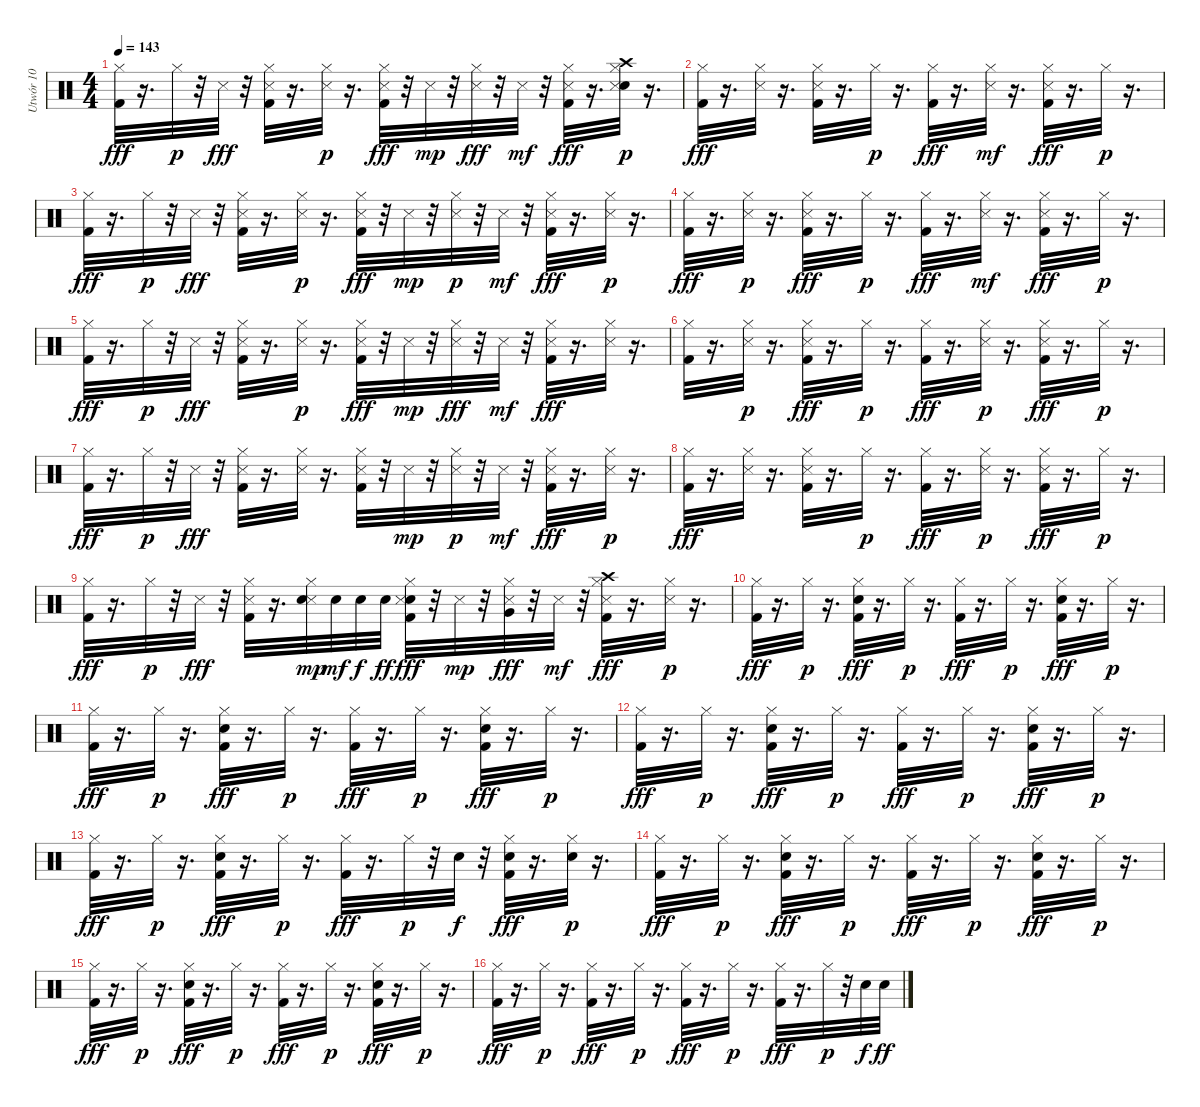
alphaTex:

\track ("Utwór 10" "Utwór 10") {instrument percussion}
\staff {score}
\articulation defaults
\ts (4 4)
\tempo 143
\clef neutral
\ks c
("Hi-Hat (closed)" "Kick (hit) 2").32{dy fff} r.16{d} "Hi-Hat (closed)".32{dy p} r.32 "Snare (side stick) 3".32{dy fff} r.32 ("Snare (side stick) 3" "Hi-Hat (closed)" "Kick (hit) 2").32 r.16{d} ("Snare (side stick) 3" "Hi-Hat (closed)").32{dy p} r.16{d} ("Kick (hit) 2" "Snare (side stick) 3" "Hi-Hat (closed)").32{dy fff} r.32 "Snare (side stick) 3".32{dy mp} r.32 ("Hi-Hat (closed)" "Snare (side stick) 3").32{dy fff} r.32 "Snare (side stick) 3".32{dy mf} r.32 ("Hi-Hat (closed)" "Snare (side stick) 3" "Kick (hit) 2").32{dy fff} r.16{d} ("Electric Snare (hit)" "Crash high (hit)" "Snare (side stick) 3" "Hi-Hat (closed)").32{dy p} r.16{d} |
("Kick (hit) 2" "Hi-Hat (closed)").32{dy fff} r.16{d} ("Hi-Hat (closed)" "Snare (side stick) 3").32 r.16{d} ("Snare (side stick) 3" "Hi-Hat (closed)" "Kick (hit) 2").32 r.16{d} "Hi-Hat (closed)".32{dy p} r.16{d} ("Hi-Hat (closed)" "Kick (hit) 2").32{dy fff} r.16{d} ("Hi-Hat (closed)" "Snare (side stick) 3").32{dy mf} r.16{d} ("Snare (side stick) 3" "Kick (hit) 2" "Hi-Hat (closed)").32{dy fff} r.16{d} "Hi-Hat (closed)".32{dy p} r.16{d} |
("Hi-Hat (closed)" "Kick (hit) 2").32{dy fff} r.16{d} "Hi-Hat (closed)".32{dy p} r.32 "Snare (side stick) 3".32{dy fff} r.32 ("Kick (hit) 2" "Snare (side stick) 3" "Hi-Hat (closed)").32 r.16{d} ("Snare (side stick) 3" "Hi-Hat (closed)").32{dy p} r.16{d} ("Snare (side stick) 3" "Kick (hit) 2" "Hi-Hat (closed)").32{dy fff} r.32 "Snare (side stick) 3".32{dy mp} r.32 ("Snare (side stick) 3" "Hi-Hat (closed)").32{dy p} r.32 "Snare (side stick) 3".32{dy mf} r.32 ("Hi-Hat (closed)" "Snare (side stick) 3" "Kick (hit) 2").32{dy fff} r.16{d} ("Snare (side stick) 3" "Hi-Hat (closed)").32{dy p} r.16{d} |
("Kick (hit) 2" "Hi-Hat (closed)").32{dy fff} r.16{d} ("Snare (side stick) 3" "Hi-Hat (closed)").32{dy p} r.16{d} ("Kick (hit) 2" "Hi-Hat (closed)" "Snare (side stick) 3").32{dy fff} r.16{d} "Hi-Hat (closed)".32{dy p} r.16{d} ("Hi-Hat (closed)" "Kick (hit) 2").32{dy fff} r.16{d} ("Hi-Hat (closed)" "Snare (side stick) 3").32{dy mf} r.16{d} ("Snare (side stick) 3" "Kick (hit) 2" "Hi-Hat (closed)").32{dy fff} r.16{d} "Hi-Hat (closed)".32{dy p} r.16{d} |
("Kick (hit) 2" "Hi-Hat (closed)").32{dy fff} r.16{d} "Hi-Hat (closed)".32{dy p} r.32 "Snare (side stick) 3".32{dy fff} r.32 ("Snare (side stick) 3" "Kick (hit) 2" "Hi-Hat (closed)").32 r.16{d} ("Snare (side stick) 3" "Hi-Hat (closed)").32{dy p} r.16{d} ("Snare (side stick) 3" "Hi-Hat (closed)" "Kick (hit) 2").32{dy fff} r.32 "Snare (side stick) 3".32{dy mp} r.32 ("Hi-Hat (closed)" "Snare (side stick) 3").32{dy fff} r.32 "Snare (side stick) 3".32{dy mf} r.32 ("Kick (hit) 2" "Hi-Hat (closed)" "Snare (side stick) 3").32{dy fff} r.16{d} ("Hi-Hat (closed)" "Snare (side stick) 3").32 r.16{d} |
("Kick (hit) 2" "Hi-Hat (closed)").32 r.16{d} ("Snare (side stick) 3" "Hi-Hat (closed)").32{dy p} r.16{d} ("Hi-Hat (closed)" "Kick (hit) 2" "Snare (side stick) 3").32{dy fff} r.16{d} "Hi-Hat (closed)".32{dy p} r.16{d} ("Kick (hit) 2" "Hi-Hat (closed)").32{dy fff} r.16{d} ("Snare (side stick) 3" "Hi-Hat (closed)").32{dy p} r.16{d} ("Snare (side stick) 3" "Kick (hit) 2" "Hi-Hat (closed)").32{dy fff} r.16{d} "Hi-Hat (closed)".32{dy p} r.16{d} |
("Kick (hit) 2" "Hi-Hat (closed)").32{dy fff} r.16{d} "Hi-Hat (closed)".32{dy p} r.32 "Snare (side stick) 3".32{dy fff} r.32 ("Kick (hit) 2" "Snare (side stick) 3" "Hi-Hat (closed)").32 r.16{d} ("Hi-Hat (closed)" "Snare (side stick) 3").32 r.16{d} ("Snare (side stick) 3" "Hi-Hat (closed)" "Kick (hit) 2").32 r.32 "Snare (side stick) 3".32{dy mp} r.32 ("Snare (side stick) 3" "Hi-Hat (closed)").32{dy p} r.32 "Snare (side stick) 3".32{dy mf} r.32 ("Snare (side stick) 3" "Hi-Hat (closed)" "Kick (hit) 2").32{dy fff} r.16{d} ("Snare (side stick) 3" "Hi-Hat (closed)").32{dy p} r.16{d} |
("Kick (hit) 2" "Hi-Hat (closed)").32{dy fff} r.16{d} ("Hi-Hat (closed)" "Snare (side stick) 3").32 r.16{d} ("Hi-Hat (closed)" "Snare (side stick) 3" "Kick (hit) 2").32 r.16{d} "Hi-Hat (closed)".32{dy p} r.16{d} ("Hi-Hat (closed)" "Kick (hit) 2").32{dy fff} r.16{d} ("Snare (side stick) 3" "Hi-Hat (closed)").32{dy p} r.16{d} ("Hi-Hat (closed)" "Kick (hit) 2" "Snare (side stick) 3").32{dy fff} r.16{d} "Hi-Hat (closed)".32{dy p} r.16{d} |
("Kick (hit) 2" "Hi-Hat (closed)").32{dy fff} r.16{d} "Hi-Hat (closed)".32{dy p} r.32 "Snare (side stick) 3".32{dy fff} r.32 ("Kick (hit) 2" "Snare (side stick) 3" "Hi-Hat (closed)").32 r.16{d} ("Snare (side stick) 3" "Hi-Hat (closed)" "Electric Snare (hit)").32{dy mp} "Electric Snare (hit)".32{dy mf} "Electric Snare (hit)".32{dy f} "Electric Snare (hit)".32{dy ff} ("Electric Snare (hit)" "Snare (side stick) 3" "Hi-Hat (closed)" "Kick (hit) 2").32{dy fff} r.32 "Snare (side stick) 3".32{dy mp} r.32 ("Hi-Hat (closed)" "Very Low Tom (hit)" "Snare (side stick) 3").32{dy fff} r.32 "Snare (side stick) 3".32{dy mf} r.32 ("Crash high (hit)" "Kick (hit) 2" "Snare (side stick) 3" "Hi-Hat (closed)").32{dy fff} r.16{d} ("Snare (side stick) 3" "Hi-Hat (closed)").32{dy p} r.16{d} |
("Kick (hit) 2" "Hi-Hat (closed)").32{dy fff} r.16{d} "Hi-Hat (closed)".32{dy p} r.16{d} ("Hi-Hat (closed)" "Kick (hit) 2" "Electric Snare (hit)").32{dy fff} r.16{d} "Hi-Hat (closed)".32{dy p} r.16{d} ("Kick (hit) 2" "Hi-Hat (closed)").32{dy fff} r.16{d} "Hi-Hat (closed)".32{dy p} r.16{d} ("Hi-Hat (closed)" "Electric Snare (hit)" "Kick (hit) 2").32{dy fff} r.16{d} "Hi-Hat (closed)".32{dy p} r.16{d} |
("Hi-Hat (closed)" "Kick (hit) 2").32{dy fff} r.16{d} "Hi-Hat (closed)".32{dy p} r.16{d} ("Hi-Hat (closed)" "Kick (hit) 2" "Electric Snare (hit)").32{dy fff} r.16{d} "Hi-Hat (closed)".32{dy p} r.16{d} ("Kick (hit) 2" "Hi-Hat (closed)").32{dy fff} r.16{d} "Hi-Hat (closed)".32{dy p} r.16{d} ("Electric Snare (hit)" "Kick (hit) 2" "Hi-Hat (closed)").32{dy fff} r.16{d} "Hi-Hat (closed)".32{dy p} r.16{d} |
("Kick (hit) 2" "Hi-Hat (closed)").32{dy fff} r.16{d} "Hi-Hat (closed)".32{dy p} r.16{d} ("Kick (hit) 2" "Electric Snare (hit)" "Hi-Hat (closed)").32{dy fff} r.16{d} "Hi-Hat (closed)".32{dy p} r.16{d} ("Kick (hit) 2" "Hi-Hat (closed)").32{dy fff} r.16{d} "Hi-Hat (closed)".32{dy p} r.16{d} ("Hi-Hat (closed)" "Electric Snare (hit)" "Kick (hit) 2").32{dy fff} r.16{d} "Hi-Hat (closed)".32{dy p} r.16{d} |
("Hi-Hat (closed)" "Kick (hit) 2").32{dy fff} r.16{d} "Hi-Hat (closed)".32{dy p} r.16{d} ("Kick (hit) 2" "Electric Snare (hit)" "Hi-Hat (closed)").32{dy fff} r.16{d} "Hi-Hat (closed)".32{dy p} r.16{d} ("Hi-Hat (closed)" "Kick (hit) 2").32{dy fff} r.16{d} "Hi-Hat (closed)".32{dy p} r.32 "Electric Snare (hit)".32{dy f} r.32 ("Electric Snare (hit)" "Kick (hit) 2" "Hi-Hat (closed)").32{dy fff} r.16{d} ("Electric Snare (hit)" "Hi-Hat (closed)").32{dy p} r.16{d} |
("Hi-Hat (closed)" "Kick (hit) 2").32{dy fff} r.16{d} "Hi-Hat (closed)".32{dy p} r.16{d} ("Kick (hit) 2" "Electric Snare (hit)" "Hi-Hat (closed)").32{dy fff} r.16{d} "Hi-Hat (closed)".32{dy p} r.16{d} ("Hi-Hat (closed)" "Kick (hit) 2").32{dy fff} r.16{d} "Hi-Hat (closed)".32{dy p} r.16{d} ("Kick (hit) 2" "Hi-Hat (closed)" "Electric Snare (hit)").32{dy fff} r.16{d} "Hi-Hat (closed)".32{dy p} r.16{d} |
("Hi-Hat (closed)" "Kick (hit) 2").32{dy fff} r.16{d} "Hi-Hat (closed)".32{dy p} r.16{d} ("Kick (hit) 2" "Electric Snare (hit)" "Hi-Hat (closed)").32{dy fff} r.16{d} "Hi-Hat (closed)".32{dy p} r.16{d} ("Kick (hit) 2" "Hi-Hat (closed)").32{dy fff} r.16{d} "Hi-Hat (closed)".32{dy p} r.16{d} ("Electric Snare (hit)" "Hi-Hat (closed)" "Kick (hit) 2").32{dy fff} r.16{d} "Hi-Hat (closed)".32{dy p} r.16{d} |
("Hi-Hat (closed)" "Kick (hit) 2").32{dy fff} r.16{d} "Hi-Hat (closed)".32{dy p} r.16{d} ("Kick (hit) 2" "Hi-Hat (closed)").32{dy fff} r.16{d} "Hi-Hat (closed)".32{dy p} r.16{d} ("Kick (hit) 2" "Hi-Hat (closed)").32{dy fff} r.16{d} "Hi-Hat (closed)".32{dy p} r.16{d} ("Hi-Hat (closed)" "Kick (hit) 2").32{dy fff} r.16{d} "Hi-Hat (closed)".32{dy p} r.32 "Electric Snare (hit)".32{dy f} "Electric Snare (hit)".32{dy ff}
